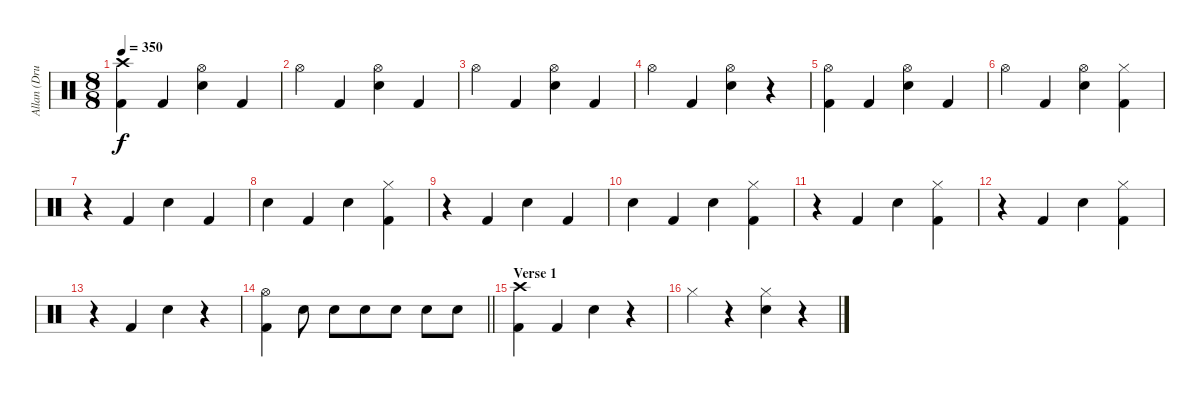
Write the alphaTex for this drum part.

\track ("Allan (Drums)" "Allan (Dru") {solo instrument percussion}
\staff {score}
\articulation defaults
\ts (8 8)
\tempo 350
\clef neutral
\ks c
("Crash high (hit)" "Kick (hit) 2").4{dy f} "Kick (hit) 2".4 ("Hi-Hat (open)" "Snare (hit) 2").4 "Kick (hit) 2".4 |
"Hi-Hat (open)".4 "Kick (hit) 2".4 ("Hi-Hat (open)" "Snare (hit) 2").4 "Kick (hit) 2".4 |
"Hi-Hat (open)".4 "Kick (hit) 2".4 ("Hi-Hat (open)" "Snare (hit) 2").4 "Kick (hit) 2".4 |
"Hi-Hat (open)".4 "Kick (hit) 2".4 ("Hi-Hat (open)" "Snare (hit) 2").4 r.4 |
("Hi-Hat (open)" "Kick (hit) 2").4 "Kick (hit) 2".4 ("Hi-Hat (open)" "Snare (hit) 2").4 "Kick (hit) 2".4 |
"Hi-Hat (open)".4 "Kick (hit) 2".4 ("Hi-Hat (open)" "Snare (hit) 2").4 ("Hi-Hat (closed)" "Kick (hit) 2").4 |
r.4 "Kick (hit) 2".4 "Snare (hit) 2".4 "Kick (hit) 2".4 |
"Snare (hit) 2".4 "Kick (hit) 2".4 "Snare (hit) 2".4 ("Hi-Hat (closed)" "Kick (hit) 2").4 |
r.4 "Kick (hit) 2".4 "Snare (hit) 2".4 "Kick (hit) 2".4 |
"Snare (hit) 2".4 "Kick (hit) 2".4 "Snare (hit) 2".4 ("Hi-Hat (closed)" "Kick (hit) 2").4 |
r.4 "Kick (hit) 2".4 "Snare (hit) 2".4 ("Hi-Hat (closed)" "Kick (hit) 2").4 |
r.4 "Kick (hit) 2".4 "Snare (hit) 2".4 ("Hi-Hat (closed)" "Kick (hit) 2").4 |
r.4 "Kick (hit) 2".4 "Snare (hit) 2".4 r.4 |
\barLineRight lightlight
("Hi-Hat (open)" "Kick (hit) 2").4 "Snare (hit) 2".8 "Snare (hit) 2".8 "Snare (hit) 2".8 "Snare (hit) 2".8 "Snare (hit) 2".8 "Snare (hit) 2".8 |
\section ("" "Verse 1")
("Crash high (hit)" "Kick (hit) 2").4 "Kick (hit) 2".4 "Snare (hit) 2".4 r.4 |
"Hi-Hat (closed)".4 r.4 ("Hi-Hat (closed)" "Snare (hit) 2").4 r.4
